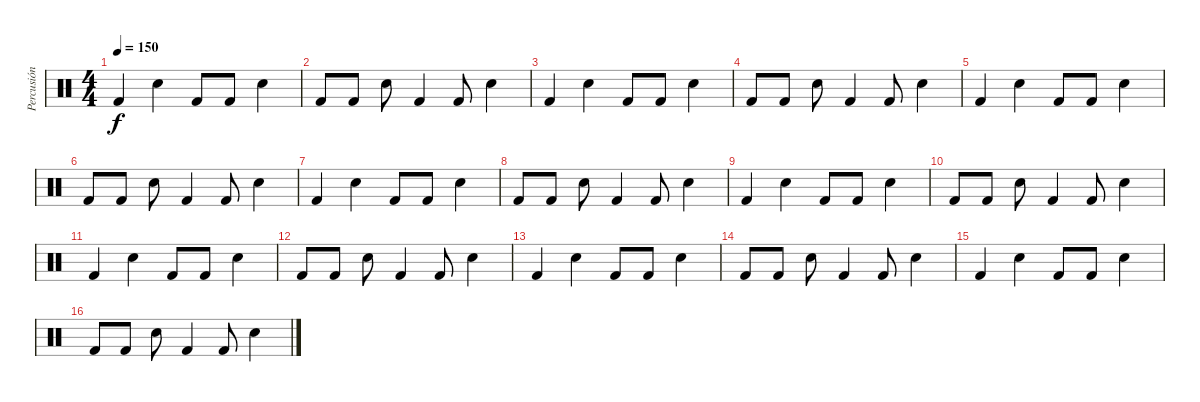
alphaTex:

\track ("Percusión" "Percusión") {instrument percussion}
\staff {score}
\articulation defaults
\ts (4 4)
\tempo 150
\clef neutral
\ks c "Kick (hit) 2".4{dy f} "Snare (hit) 2".4 "Kick (hit) 2".8 "Kick (hit) 2".8 "Snare (hit) 2".4
|
"Kick (hit) 2".8 "Kick (hit) 2".8 "Snare (hit) 2".8 "Kick (hit) 2".4 "Kick (hit) 2".8 "Snare (hit) 2".4 |
"Kick (hit) 2".4 "Snare (hit) 2".4 "Kick (hit) 2".8 "Kick (hit) 2".8 "Snare (hit) 2".4 |
"Kick (hit) 2".8 "Kick (hit) 2".8 "Snare (hit) 2".8 "Kick (hit) 2".4 "Kick (hit) 2".8 "Snare (hit) 2".4 |
"Kick (hit) 2".4 "Snare (hit) 2".4 "Kick (hit) 2".8 "Kick (hit) 2".8 "Snare (hit) 2".4 |
"Kick (hit) 2".8 "Kick (hit) 2".8 "Snare (hit) 2".8 "Kick (hit) 2".4 "Kick (hit) 2".8 "Snare (hit) 2".4 |
"Kick (hit) 2".4 "Snare (hit) 2".4 "Kick (hit) 2".8 "Kick (hit) 2".8 "Snare (hit) 2".4 |
"Kick (hit) 2".8 "Kick (hit) 2".8 "Snare (hit) 2".8 "Kick (hit) 2".4 "Kick (hit) 2".8 "Snare (hit) 2".4 |
"Kick (hit) 2".4 "Snare (hit) 2".4 "Kick (hit) 2".8 "Kick (hit) 2".8 "Snare (hit) 2".4 |
"Kick (hit) 2".8 "Kick (hit) 2".8 "Snare (hit) 2".8 "Kick (hit) 2".4 "Kick (hit) 2".8 "Snare (hit) 2".4 |
"Kick (hit) 2".4 "Snare (hit) 2".4 "Kick (hit) 2".8 "Kick (hit) 2".8 "Snare (hit) 2".4 |
"Kick (hit) 2".8 "Kick (hit) 2".8 "Snare (hit) 2".8 "Kick (hit) 2".4 "Kick (hit) 2".8 "Snare (hit) 2".4 |
"Kick (hit) 2".4 "Snare (hit) 2".4 "Kick (hit) 2".8 "Kick (hit) 2".8 "Snare (hit) 2".4 |
"Kick (hit) 2".8 "Kick (hit) 2".8 "Snare (hit) 2".8 "Kick (hit) 2".4 "Kick (hit) 2".8 "Snare (hit) 2".4 |
"Kick (hit) 2".4 "Snare (hit) 2".4 "Kick (hit) 2".8 "Kick (hit) 2".8 "Snare (hit) 2".4 |
"Kick (hit) 2".8 "Kick (hit) 2".8 "Snare (hit) 2".8 "Kick (hit) 2".4 "Kick (hit) 2".8 "Snare (hit) 2".4
